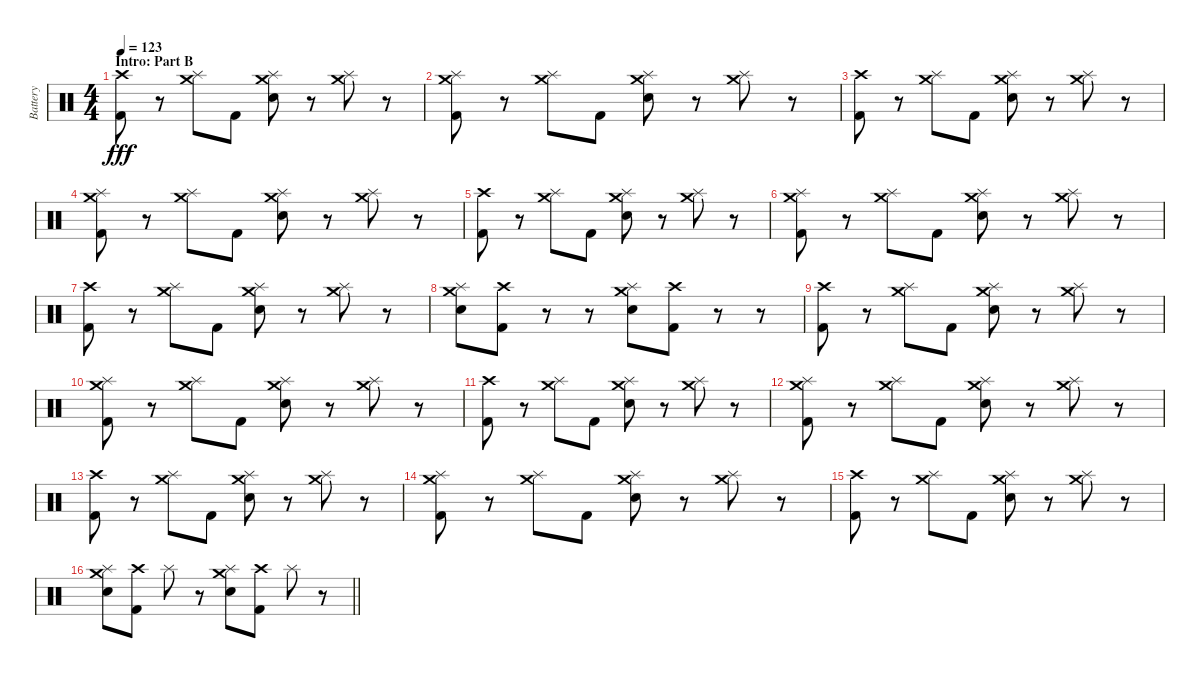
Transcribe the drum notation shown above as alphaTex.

\track ("Battery" "Battery") {instrument percussion}
\staff {score}
\articulation defaults
\ts (4 4)
\section ("" "Intro: Part B")
\tempo 123
\clef neutral
\ks c
("Crash high (hit)" "Kick (hit) 2").8{dy fff} r.8 ("Crash medium (hit)" "Splash (hit)").8 "Kick (hit) 2".8 ("Crash medium (hit)" "Splash (hit)" "Electric Snare (hit)").8 r.8 ("Crash medium (hit)" "Splash (hit)").8 r.8 |
("Crash medium (hit)" "Splash (hit)" "Kick (hit) 2").8 r.8 ("Crash medium (hit)" "Splash (hit)").8 "Kick (hit) 2".8 ("Crash medium (hit)" "Splash (hit)" "Electric Snare (hit)").8 r.8 ("Crash medium (hit)" "Splash (hit)").8 r.8 |
("Crash high (hit)" "Kick (hit) 2").8 r.8 ("Crash medium (hit)" "Splash (hit)").8 "Kick (hit) 2".8 ("Crash medium (hit)" "Splash (hit)" "Electric Snare (hit)").8 r.8 ("Crash medium (hit)" "Splash (hit)").8 r.8 |
("Crash medium (hit)" "Splash (hit)" "Kick (hit) 2").8 r.8 ("Crash medium (hit)" "Splash (hit)").8 "Kick (hit) 2".8 ("Crash medium (hit)" "Splash (hit)" "Electric Snare (hit)").8 r.8 ("Crash medium (hit)" "Splash (hit)").8 r.8 |
("Crash high (hit)" "Kick (hit) 2").8 r.8 ("Crash medium (hit)" "Splash (hit)").8 "Kick (hit) 2".8 ("Crash medium (hit)" "Splash (hit)" "Electric Snare (hit)").8 r.8 ("Crash medium (hit)" "Splash (hit)").8 r.8 |
("Crash medium (hit)" "Splash (hit)" "Kick (hit) 2").8 r.8 ("Crash medium (hit)" "Splash (hit)").8 "Kick (hit) 2".8 ("Crash medium (hit)" "Splash (hit)" "Electric Snare (hit)").8 r.8 ("Crash medium (hit)" "Splash (hit)").8 r.8 |
("Crash high (hit)" "Kick (hit) 2").8 r.8 ("Crash medium (hit)" "Splash (hit)").8 "Kick (hit) 2".8 ("Crash medium (hit)" "Splash (hit)" "Electric Snare (hit)").8 r.8 ("Crash medium (hit)" "Splash (hit)").8 r.8 |
("Crash medium (hit)" "Splash (hit)" "Electric Snare (hit)").8 ("Crash high (hit)" "Kick (hit) 2").8 r.8 r.8 ("Crash medium (hit)" "Splash (hit)" "Electric Snare (hit)").8 ("Crash high (hit)" "Kick (hit) 2").8 r.8 r.8 |
("Crash high (hit)" "Kick (hit) 2").8 r.8 ("Crash medium (hit)" "Splash (hit)").8 "Kick (hit) 2".8 ("Crash medium (hit)" "Splash (hit)" "Electric Snare (hit)").8 r.8 ("Crash medium (hit)" "Splash (hit)").8 r.8 |
("Crash medium (hit)" "Splash (hit)" "Kick (hit) 2").8 r.8 ("Crash medium (hit)" "Splash (hit)").8 "Kick (hit) 2".8 ("Crash medium (hit)" "Splash (hit)" "Electric Snare (hit)").8 r.8 ("Crash medium (hit)" "Splash (hit)").8 r.8 |
("Crash high (hit)" "Kick (hit) 2").8 r.8 ("Crash medium (hit)" "Splash (hit)").8 "Kick (hit) 2".8 ("Crash medium (hit)" "Splash (hit)" "Electric Snare (hit)").8 r.8 ("Crash medium (hit)" "Splash (hit)").8 r.8 |
("Crash medium (hit)" "Splash (hit)" "Kick (hit) 2").8 r.8 ("Crash medium (hit)" "Splash (hit)").8 "Kick (hit) 2".8 ("Crash medium (hit)" "Splash (hit)" "Electric Snare (hit)").8 r.8 ("Crash medium (hit)" "Splash (hit)").8 r.8 |
("Crash high (hit)" "Kick (hit) 2").8 r.8 ("Crash medium (hit)" "Splash (hit)").8 "Kick (hit) 2".8 ("Crash medium (hit)" "Splash (hit)" "Electric Snare (hit)").8 r.8 ("Crash medium (hit)" "Splash (hit)").8 r.8 |
("Crash medium (hit)" "Splash (hit)" "Kick (hit) 2").8 r.8 ("Crash medium (hit)" "Splash (hit)").8 "Kick (hit) 2".8 ("Crash medium (hit)" "Splash (hit)" "Electric Snare (hit)").8 r.8 ("Crash medium (hit)" "Splash (hit)").8 r.8 |
("Crash high (hit)" "Kick (hit) 2").8 r.8 ("Crash medium (hit)" "Splash (hit)").8 "Kick (hit) 2".8 ("Crash medium (hit)" "Splash (hit)" "Electric Snare (hit)").8 r.8 ("Crash medium (hit)" "Splash (hit)").8 r.8 |
\barLineRight lightlight
("Crash medium (hit)" "Splash (hit)" "Electric Snare (hit)").8 ("Crash high (hit)" "Kick (hit) 2").8 "Splash (hit)".8 r.8 ("Crash medium (hit)" "Splash (hit)" "Electric Snare (hit)").8 ("Crash high (hit)" "Kick (hit) 2").8 "Splash (hit)".8 r.8
